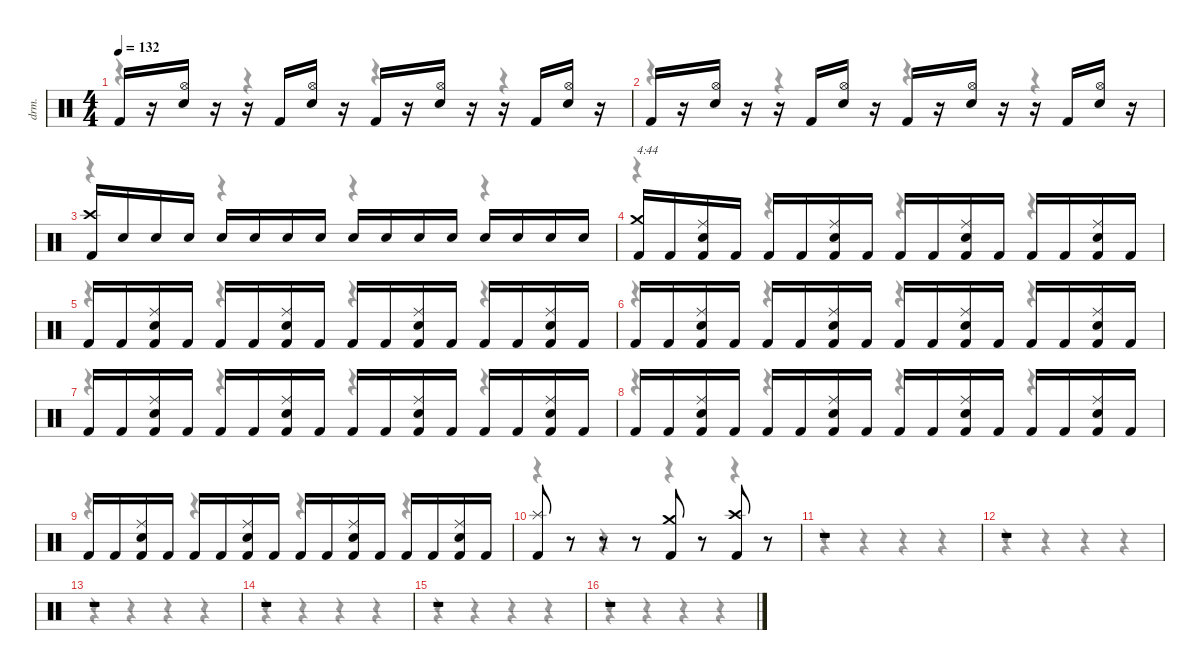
\defaultSystemsLayout 4
\hideDynamics
\bracketExtendMode nobrackets
\otherSystemsTrackNameOrientation horizontal
\track ("Drums" "drm.") {instrument percussion}
\staff {score}
\articulation defaults
\voice
\ts (4 4)
\tempo 132
\clef neutral
\ks c "Kick (hit) 2".16{dy fff}
r.16 ("Hi-Hat (open)" "Snare (hit) 2").16{dy f} r.16 r.16 "Kick (hit) 2".16{dy fff} ("Hi-Hat (open)" "Snare (hit) 2").16{dy f} r.16 "Kick (hit) 2".16{dy fff} r.16 ("Hi-Hat (open)" "Snare (hit) 2").16{dy f} r.16 r.16 "Kick (hit) 2".16{dy fff} ("Hi-Hat (open)" "Snare (hit) 2").16{dy f} r.16 |
"Kick (hit) 2".16{dy fff} r.16 ("Hi-Hat (open)" "Snare (hit) 2").16{dy f} r.16 r.16 "Kick (hit) 2".16{dy fff} ("Hi-Hat (open)" "Snare (hit) 2").16{dy f} r.16 "Kick (hit) 2".16{dy fff} r.16 ("Hi-Hat (open)" "Snare (hit) 2").16{dy f} r.16 r.16 "Kick (hit) 2".16{dy fff} ("Hi-Hat (open)" "Snare (hit) 2").16{dy f} r.16 |
("Crash high (hit)" "Kick (hit) 2").16 "Snare (hit) 2".16{dy fff} "Snare (hit) 2".16 "Snare (hit) 2".16 "Snare (hit) 2".16 "Snare (hit) 2".16 "Snare (hit) 2".16 "Snare (hit) 2".16 "Snare (hit) 2".16 "Snare (hit) 2".16 "Snare (hit) 2".16 "Snare (hit) 2".16 "Snare (hit) 2".16 "Snare (hit) 2".16 "Snare (hit) 2".16 "Snare (hit) 2".16 |
("Crash medium (hit)" "Kick (hit) 2").16{txt "4:44" dy f} "Kick (hit) 2".16{dy fff} ("Ride (middle)" "Snare (hit) 2" "Kick (hit) 2").16{dy f} "Kick (hit) 2".16{dy fff} "Kick (hit) 2".16 "Kick (hit) 2".16 ("Ride (middle)" "Snare (hit) 2" "Kick (hit) 2").16{dy f} "Kick (hit) 2".16{dy fff} "Kick (hit) 2".16 "Kick (hit) 2".16 ("Ride (middle)" "Snare (hit) 2" "Kick (hit) 2").16{dy f} "Kick (hit) 2".16{dy fff} "Kick (hit) 2".16 "Kick (hit) 2".16 ("Ride (middle)" "Snare (hit) 2" "Kick (hit) 2").16{dy f} "Kick (hit) 2".16{dy fff} |
"Kick (hit) 2".16 "Kick (hit) 2".16 ("Ride (middle)" "Snare (hit) 2" "Kick (hit) 2").16{dy f} "Kick (hit) 2".16{dy fff} "Kick (hit) 2".16 "Kick (hit) 2".16 ("Ride (middle)" "Snare (hit) 2" "Kick (hit) 2").16{dy f} "Kick (hit) 2".16{dy fff} "Kick (hit) 2".16 "Kick (hit) 2".16 ("Ride (middle)" "Snare (hit) 2" "Kick (hit) 2").16{dy f} "Kick (hit) 2".16{dy fff} "Kick (hit) 2".16 "Kick (hit) 2".16 ("Ride (middle)" "Snare (hit) 2" "Kick (hit) 2").16{dy f} "Kick (hit) 2".16{dy fff} |
"Kick (hit) 2".16 "Kick (hit) 2".16 ("Ride (middle)" "Snare (hit) 2" "Kick (hit) 2").16{dy f} "Kick (hit) 2".16{dy fff} "Kick (hit) 2".16 "Kick (hit) 2".16 ("Ride (middle)" "Snare (hit) 2" "Kick (hit) 2").16{dy f} "Kick (hit) 2".16{dy fff} "Kick (hit) 2".16 "Kick (hit) 2".16 ("Ride (middle)" "Snare (hit) 2" "Kick (hit) 2").16{dy f} "Kick (hit) 2".16{dy fff} "Kick (hit) 2".16 "Kick (hit) 2".16 ("Ride (middle)" "Snare (hit) 2" "Kick (hit) 2").16{dy f} "Kick (hit) 2".16{dy fff} |
"Kick (hit) 2".16 "Kick (hit) 2".16 ("Ride (middle)" "Snare (hit) 2" "Kick (hit) 2").16{dy f} "Kick (hit) 2".16{dy fff} "Kick (hit) 2".16 "Kick (hit) 2".16 ("Ride (middle)" "Snare (hit) 2" "Kick (hit) 2").16{dy f} "Kick (hit) 2".16{dy fff} "Kick (hit) 2".16 "Kick (hit) 2".16 ("Ride (middle)" "Snare (hit) 2" "Kick (hit) 2").16{dy f} "Kick (hit) 2".16{dy fff} "Kick (hit) 2".16 "Kick (hit) 2".16 ("Ride (middle)" "Snare (hit) 2" "Kick (hit) 2").16{dy f} "Kick (hit) 2".16{dy fff} |
"Kick (hit) 2".16 "Kick (hit) 2".16 ("Ride (middle)" "Snare (hit) 2" "Kick (hit) 2").16{dy f} "Kick (hit) 2".16{dy fff} "Kick (hit) 2".16 "Kick (hit) 2".16 ("Ride (middle)" "Snare (hit) 2" "Kick (hit) 2").16{dy f} "Kick (hit) 2".16{dy fff} "Kick (hit) 2".16 "Kick (hit) 2".16 ("Ride (middle)" "Snare (hit) 2" "Kick (hit) 2").16{dy f} "Kick (hit) 2".16{dy fff} "Kick (hit) 2".16 "Kick (hit) 2".16 ("Ride (middle)" "Snare (hit) 2" "Kick (hit) 2").16{dy f} "Kick (hit) 2".16{dy fff} |
"Kick (hit) 2".16 "Kick (hit) 2".16 ("Ride (middle)" "Snare (hit) 2" "Kick (hit) 2").16{dy f} "Kick (hit) 2".16{dy fff} "Kick (hit) 2".16 "Kick (hit) 2".16 ("Ride (middle)" "Snare (hit) 2" "Kick (hit) 2").16{dy f} "Kick (hit) 2".16{dy fff} "Kick (hit) 2".16 "Kick (hit) 2".16 ("Ride (middle)" "Snare (hit) 2" "Kick (hit) 2").16{dy f} "Kick (hit) 2".16{dy fff} "Kick (hit) 2".16 "Kick (hit) 2".16 ("Ride (middle)" "Snare (hit) 2" "Kick (hit) 2").16{dy f} "Kick (hit) 2".16{dy fff} |
("Splash (hit)" "Kick (hit) 2").8{dy f} r.8 r.8 r.8 ("Crash medium (hit)" "Kick (hit) 2").8 r.8 ("Crash high (hit)" "Kick (hit) 2").8 r.8 |
r.1 |
r.1 |
r.1 |
r.1 |
r.1 |
r.1
\voice
\clef neutral
\ottava regular
\simile none
\ks c
r.4{dy mf} r.4 r.4 r.4 |
r.4 r.4 r.4 r.4 |
r.4 r.4 r.4 r.4 |
r.4 r.4 r.4 r.4 |
r.4 r.4 r.4 r.4 |
r.4 r.4 r.4 r.4 |
r.4 r.4 r.4 r.4 |
r.4 r.4 r.4 r.4 |
r.4 r.4 r.4 r.4 |
r.4 r.4 r.4 r.4 |
r.4 r.4 r.4 r.4 |
r.4 r.4 r.4 r.4 |
r.4 r.4 r.4 r.4 |
r.4 r.4 r.4 r.4 |
r.4 r.4 r.4 r.4 |
r.4 r.4 r.4 r.4
